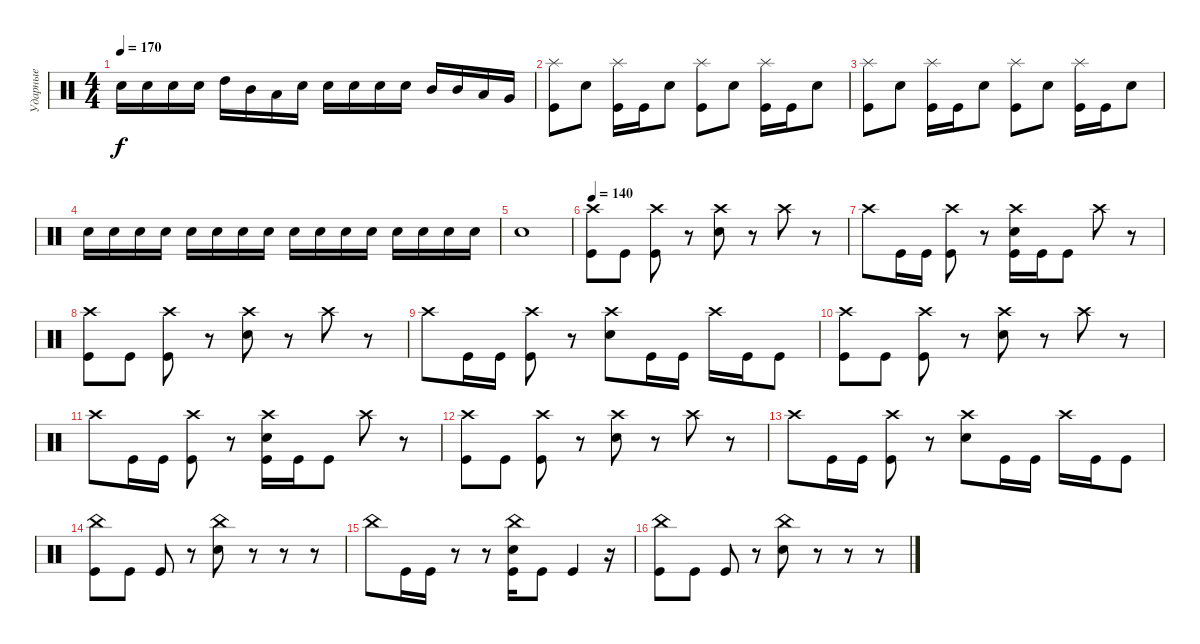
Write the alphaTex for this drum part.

\track ("Ударные" "Ударные") {instrument percussion}
\staff {score}
\articulation defaults
\ts (4 4)
\tempo 170
\clef neutral
\ks c "Snare (hit) 2".16{dy f} "Snare (hit) 2".16 "Snare (hit) 2".16 "Snare (hit) 2".16 "High Tom (hit)".16 "Mid Tom (hit)".16 "Low Tom (hit)".16 "Snare (hit) 2".16 "Snare (hit) 2".16 "Snare (hit) 2".16 "Snare (hit) 2".16 "Snare (hit) 2".16 "Mid Tom (hit)".16 "Mid Tom (hit)".16 "Low Tom (hit)".16 "Very Low Tom (hit)".16
|
("Kick (hit)" "Splash (hit)").8 "Snare (hit) 2".8 ("Kick (hit)" "Splash (hit)").16 "Kick (hit)".16 "Snare (hit) 2".8 ("Kick (hit)" "Splash (hit)").8 "Snare (hit) 2".8 ("Kick (hit)" "Splash (hit)").16 "Kick (hit)".16 "Snare (hit) 2".8 |
("Kick (hit)" "Splash (hit)").8 "Snare (hit) 2".8 ("Kick (hit)" "Splash (hit)").16 "Kick (hit)".16 "Snare (hit) 2".8 ("Kick (hit)" "Splash (hit)").8 "Snare (hit) 2".8 ("Kick (hit)" "Splash (hit)").16 "Kick (hit)".16 "Snare (hit) 2".8 |
"Snare (hit) 2".16 "Snare (hit) 2".16 "Snare (hit) 2".16 "Snare (hit) 2".16 "Snare (hit) 2".16 "Snare (hit) 2".16 "Snare (hit) 2".16 "Snare (hit) 2".16 "Snare (hit) 2".16 "Snare (hit) 2".16 "Snare (hit) 2".16 "Snare (hit) 2".16 "Snare (hit) 2".16 "Snare (hit) 2".16 "Snare (hit) 2".16 "Snare (hit) 2".16 |
"Snare (hit) 2".1 |
\tempo 140
("Kick (hit)" "Crash high (hit)").8 "Kick (hit)".8 ("Kick (hit)" "Crash high (hit)").8 r.8 ("Crash high (hit)" "Snare (hit) 2").8 r.8 "Crash high (hit)".8 r.8 |
"Crash high (hit)".8 "Kick (hit)".16 "Kick (hit)".16 ("Kick (hit)" "Crash high (hit)").8 r.8 ("Kick (hit)" "Crash high (hit)" "Snare (hit) 2").16 "Kick (hit)".16 "Kick (hit)".8 "Crash high (hit)".8 r.8 |
("Kick (hit)" "Crash high (hit)").8 "Kick (hit)".8 ("Kick (hit)" "Crash high (hit)").8 r.8 ("Crash high (hit)" "Snare (hit) 2").8 r.8 "Crash high (hit)".8 r.8 |
"Crash high (hit)".8 "Kick (hit)".16 "Kick (hit)".16 ("Kick (hit)" "Crash high (hit)").8 r.8 ("Snare (hit) 2" "Crash high (hit)").8 "Kick (hit)".16 "Kick (hit)".16 "Crash high (hit)".16 "Kick (hit)".16 "Kick (hit)".8 |
("Kick (hit)" "Crash high (hit)").8 "Kick (hit)".8 ("Kick (hit)" "Crash high (hit)").8 r.8 ("Crash high (hit)" "Snare (hit) 2").8 r.8 "Crash high (hit)".8 r.8 |
"Crash high (hit)".8 "Kick (hit)".16 "Kick (hit)".16 ("Kick (hit)" "Crash high (hit)").8 r.8 ("Kick (hit)" "Crash high (hit)" "Snare (hit) 2").16 "Kick (hit)".16 "Kick (hit)".8 "Crash high (hit)".8 r.8 |
("Kick (hit)" "Crash high (hit)").8 "Kick (hit)".8 ("Kick (hit)" "Crash high (hit)").8 r.8 ("Crash high (hit)" "Snare (hit) 2").8 r.8 "Crash high (hit)".8 r.8 |
"Crash high (hit)".8 "Kick (hit)".16 "Kick (hit)".16 ("Kick (hit)" "Crash high (hit)").8 r.8 ("Snare (hit) 2" "Crash high (hit)").8 "Kick (hit)".16 "Kick (hit)".16 "Crash high (hit)".16 "Kick (hit)".16 "Kick (hit)".8 |
("Kick (hit)" "China (hit)").8 "Kick (hit)".8 "Kick (hit)".8 r.8 ("China (hit)" "Snare (hit) 2").8 r.8 r.8 r.8 |
"China (hit)".8 "Kick (hit)".16 "Kick (hit)".16 r.8 r.8 ("Kick (hit)" "China (hit)" "Snare (hit) 2").16 "Kick (hit)".8 "Kick (hit)".4 r.16 |
("Kick (hit)" "China (hit)").8 "Kick (hit)".8 "Kick (hit)".8 r.8 ("China (hit)" "Snare (hit) 2").8 r.8 r.8 r.8
